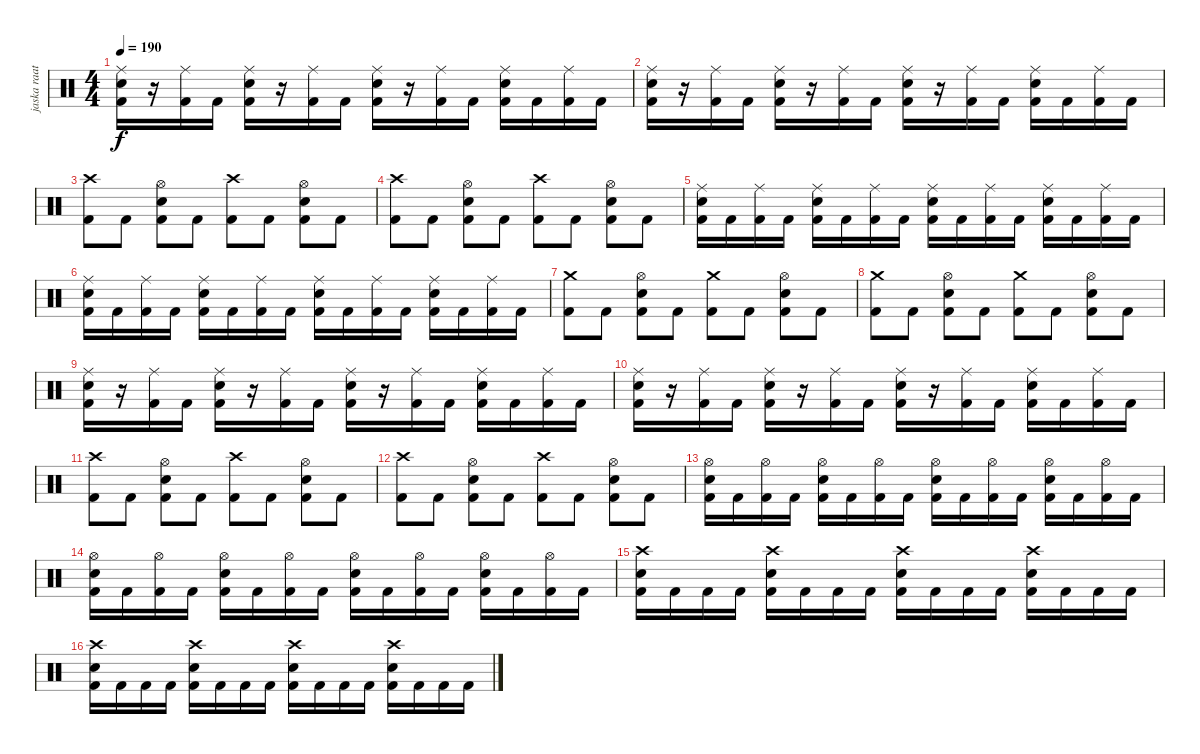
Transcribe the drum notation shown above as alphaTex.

\track ("jaska raatikainen" "jaska raat") {instrument percussion}
\staff {score}
\articulation defaults
\ts (4 4)
\tempo 190
\clef neutral
\ks c
("Ride (middle)" "Snare (hit) 2" "Kick (hit) 2").16{dy f} r.16 ("Ride (middle)" "Kick (hit) 2").16 "Kick (hit) 2".16 ("Ride (middle)" "Snare (hit) 2" "Kick (hit) 2").16 r.16 ("Ride (middle)" "Kick (hit) 2").16 "Kick (hit) 2".16 ("Ride (middle)" "Snare (hit) 2" "Kick (hit) 2").16 r.16 ("Ride (middle)" "Kick (hit) 2").16 "Kick (hit) 2".16 ("Ride (middle)" "Snare (hit) 2" "Kick (hit) 2").16 "Kick (hit) 2".16 ("Ride (middle)" "Kick (hit) 2").16 "Kick (hit) 2".16 |
("Ride (middle)" "Snare (hit) 2" "Kick (hit) 2").16 r.16 ("Ride (middle)" "Kick (hit) 2").16 "Kick (hit) 2".16 ("Ride (middle)" "Snare (hit) 2" "Kick (hit) 2").16 r.16 ("Ride (middle)" "Kick (hit) 2").16 "Kick (hit) 2".16 ("Ride (middle)" "Snare (hit) 2" "Kick (hit) 2").16 r.16 ("Ride (middle)" "Kick (hit) 2").16 "Kick (hit) 2".16 ("Ride (middle)" "Snare (hit) 2" "Kick (hit) 2").16 "Kick (hit) 2".16 ("Ride (middle)" "Kick (hit) 2").16 "Kick (hit) 2".16 |
("Crash high (hit)" "Kick (hit) 2").8 "Kick (hit) 2".8 ("Hi-Hat (open)" "Snare (hit) 2" "Kick (hit) 2").8 "Kick (hit) 2".8 ("Crash high (hit)" "Kick (hit) 2").8 "Kick (hit) 2".8 ("Hi-Hat (open)" "Snare (hit) 2" "Kick (hit) 2").8 "Kick (hit) 2".8 |
("Crash high (hit)" "Kick (hit) 2").8 "Kick (hit) 2".8 ("Hi-Hat (open)" "Snare (hit) 2" "Kick (hit) 2").8 "Kick (hit) 2".8 ("Crash high (hit)" "Kick (hit) 2").8 "Kick (hit) 2".8 ("Hi-Hat (open)" "Snare (hit) 2" "Kick (hit) 2").8 "Kick (hit) 2".8 |
("Ride (middle)" "Snare (hit) 2" "Kick (hit) 2").16 "Kick (hit) 2".16 ("Ride (middle)" "Kick (hit) 2").16 "Kick (hit) 2".16 ("Ride (middle)" "Snare (hit) 2" "Kick (hit) 2").16 "Kick (hit) 2".16 ("Ride (middle)" "Kick (hit) 2").16 "Kick (hit) 2".16 ("Ride (middle)" "Snare (hit) 2" "Kick (hit) 2").16 "Kick (hit) 2".16 ("Ride (middle)" "Kick (hit) 2").16 "Kick (hit) 2".16 ("Ride (middle)" "Snare (hit) 2" "Kick (hit) 2").16 "Kick (hit) 2".16 ("Ride (middle)" "Kick (hit) 2").16 "Kick (hit) 2".16 |
("Ride (middle)" "Snare (hit) 2" "Kick (hit) 2").16 "Kick (hit) 2".16 ("Ride (middle)" "Kick (hit) 2").16 "Kick (hit) 2".16 ("Ride (middle)" "Snare (hit) 2" "Kick (hit) 2").16 "Kick (hit) 2".16 ("Ride (middle)" "Kick (hit) 2").16 "Kick (hit) 2".16 ("Ride (middle)" "Snare (hit) 2" "Kick (hit) 2").16 "Kick (hit) 2".16 ("Ride (middle)" "Kick (hit) 2").16 "Kick (hit) 2".16 ("Ride (middle)" "Snare (hit) 2" "Kick (hit) 2").16 "Kick (hit) 2".16 ("Ride (middle)" "Kick (hit) 2").16 "Kick (hit) 2".16 |
("Crash medium (hit)" "Kick (hit) 2").8 "Kick (hit) 2".8 ("Hi-Hat (open)" "Snare (hit) 2" "Kick (hit) 2").8 "Kick (hit) 2".8 ("Crash medium (hit)" "Kick (hit) 2").8 "Kick (hit) 2".8 ("Hi-Hat (open)" "Snare (hit) 2" "Kick (hit) 2").8 "Kick (hit) 2".8 |
("Crash medium (hit)" "Kick (hit) 2").8 "Kick (hit) 2".8 ("Hi-Hat (open)" "Snare (hit) 2" "Kick (hit) 2").8 "Kick (hit) 2".8 ("Crash medium (hit)" "Kick (hit) 2").8 "Kick (hit) 2".8 ("Hi-Hat (open)" "Snare (hit) 2" "Kick (hit) 2").8 "Kick (hit) 2".8 |
("Ride (middle)" "Snare (hit) 2" "Kick (hit) 2").16 r.16 ("Ride (middle)" "Kick (hit) 2").16 "Kick (hit) 2".16 ("Ride (middle)" "Snare (hit) 2" "Kick (hit) 2").16 r.16 ("Ride (middle)" "Kick (hit) 2").16 "Kick (hit) 2".16 ("Ride (middle)" "Snare (hit) 2" "Kick (hit) 2").16 r.16 ("Ride (middle)" "Kick (hit) 2").16 "Kick (hit) 2".16 ("Ride (middle)" "Snare (hit) 2" "Kick (hit) 2").16 "Kick (hit) 2".16 ("Ride (middle)" "Kick (hit) 2").16 "Kick (hit) 2".16 |
("Ride (middle)" "Snare (hit) 2" "Kick (hit) 2").16 r.16 ("Ride (middle)" "Kick (hit) 2").16 "Kick (hit) 2".16 ("Ride (middle)" "Snare (hit) 2" "Kick (hit) 2").16 r.16 ("Ride (middle)" "Kick (hit) 2").16 "Kick (hit) 2".16 ("Ride (middle)" "Snare (hit) 2" "Kick (hit) 2").16 r.16 ("Ride (middle)" "Kick (hit) 2").16 "Kick (hit) 2".16 ("Ride (middle)" "Snare (hit) 2" "Kick (hit) 2").16 "Kick (hit) 2".16 ("Ride (middle)" "Kick (hit) 2").16 "Kick (hit) 2".16 |
("Crash high (hit)" "Kick (hit) 2").8 "Kick (hit) 2".8 ("Hi-Hat (open)" "Snare (hit) 2" "Kick (hit) 2").8 "Kick (hit) 2".8 ("Crash high (hit)" "Kick (hit) 2").8 "Kick (hit) 2".8 ("Hi-Hat (open)" "Snare (hit) 2" "Kick (hit) 2").8 "Kick (hit) 2".8 |
("Crash high (hit)" "Kick (hit) 2").8 "Kick (hit) 2".8 ("Hi-Hat (open)" "Snare (hit) 2" "Kick (hit) 2").8 "Kick (hit) 2".8 ("Crash high (hit)" "Kick (hit) 2").8 "Kick (hit) 2".8 ("Hi-Hat (open)" "Snare (hit) 2" "Kick (hit) 2").8 "Kick (hit) 2".8 |
("Hi-Hat (open)" "Snare (hit) 2" "Kick (hit) 2").16 "Kick (hit) 2".16 ("Hi-Hat (open)" "Kick (hit) 2").16 "Kick (hit) 2".16 ("Hi-Hat (open)" "Snare (hit) 2" "Kick (hit) 2").16 "Kick (hit) 2".16 ("Hi-Hat (open)" "Kick (hit) 2").16 "Kick (hit) 2".16 ("Hi-Hat (open)" "Snare (hit) 2" "Kick (hit) 2").16 "Kick (hit) 2".16 ("Hi-Hat (open)" "Kick (hit) 2").16 "Kick (hit) 2".16 ("Hi-Hat (open)" "Snare (hit) 2" "Kick (hit) 2").16 "Kick (hit) 2".16 ("Hi-Hat (open)" "Kick (hit) 2").16 "Kick (hit) 2".16 |
("Hi-Hat (open)" "Snare (hit) 2" "Kick (hit) 2").16 "Kick (hit) 2".16 ("Hi-Hat (open)" "Kick (hit) 2").16 "Kick (hit) 2".16 ("Hi-Hat (open)" "Snare (hit) 2" "Kick (hit) 2").16 "Kick (hit) 2".16 ("Hi-Hat (open)" "Kick (hit) 2").16 "Kick (hit) 2".16 ("Hi-Hat (open)" "Snare (hit) 2" "Kick (hit) 2").16 "Kick (hit) 2".16 ("Hi-Hat (open)" "Kick (hit) 2").16 "Kick (hit) 2".16 ("Hi-Hat (open)" "Snare (hit) 2" "Kick (hit) 2").16 "Kick (hit) 2".16 ("Hi-Hat (open)" "Kick (hit) 2").16 "Kick (hit) 2".16 |
("Crash high (hit)" "Snare (hit) 2" "Kick (hit) 2").16 "Kick (hit) 2".16 "Kick (hit) 2".16 "Kick (hit) 2".16 ("Crash high (hit)" "Snare (hit) 2" "Kick (hit) 2").16 "Kick (hit) 2".16 "Kick (hit) 2".16 "Kick (hit) 2".16 ("Crash high (hit)" "Snare (hit) 2" "Kick (hit) 2").16 "Kick (hit) 2".16 "Kick (hit) 2".16 "Kick (hit) 2".16 ("Crash high (hit)" "Snare (hit) 2" "Kick (hit) 2").16 "Kick (hit) 2".16 "Kick (hit) 2".16 "Kick (hit) 2".16 |
("Crash high (hit)" "Snare (hit) 2" "Kick (hit) 2").16 "Kick (hit) 2".16 "Kick (hit) 2".16 "Kick (hit) 2".16 ("Crash high (hit)" "Snare (hit) 2" "Kick (hit) 2").16 "Kick (hit) 2".16 "Kick (hit) 2".16 "Kick (hit) 2".16 ("Crash high (hit)" "Snare (hit) 2" "Kick (hit) 2").16 "Kick (hit) 2".16 "Kick (hit) 2".16 "Kick (hit) 2".16 ("Crash high (hit)" "Snare (hit) 2" "Kick (hit) 2").16 "Kick (hit) 2".16 "Kick (hit) 2".16 "Kick (hit) 2".16
